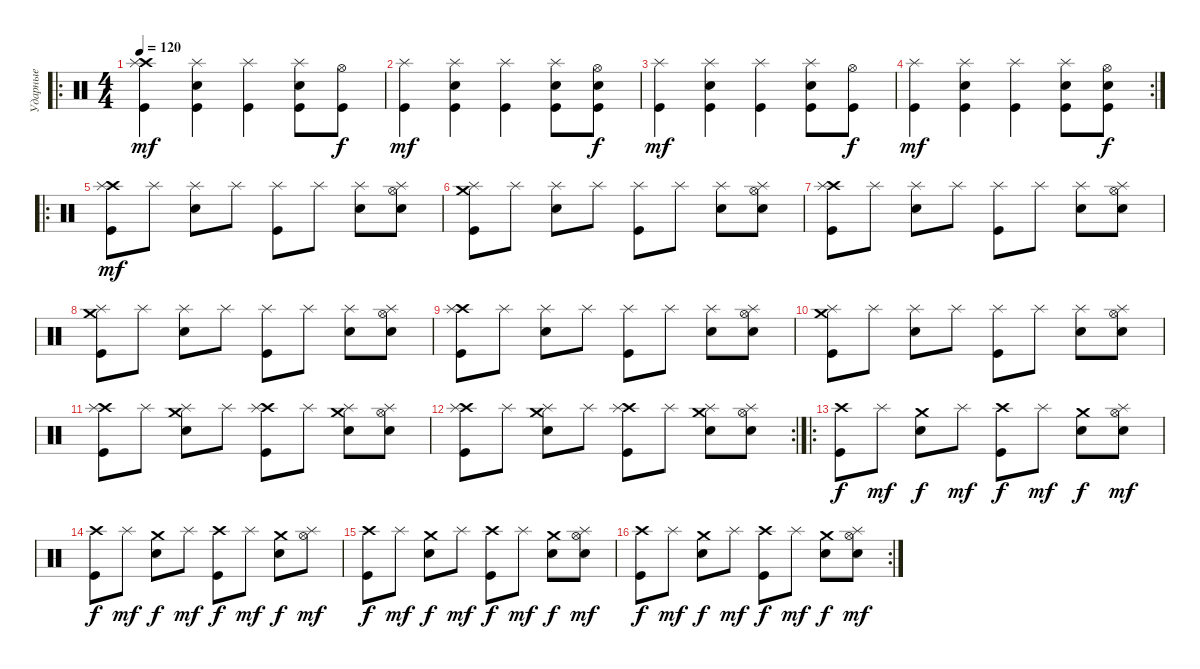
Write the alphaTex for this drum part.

\track ("Ударные" "Ударные") {instrument percussion}
\staff
\articulation defaults
\ro
\ts (4 4)
\tempo 120
\clef neutral
\ks c
("Crash high (hit)" "Splash (hit)" "Kick (hit)").4{dy mf} ("Splash (hit)" "Snare (hit) 2" "Kick (hit)").4 ("Splash (hit)" "Kick (hit)").4 ("Splash (hit)" "Snare (hit) 2" "Kick (hit)").8 ("Hi-Hat (open)" "Kick (hit)").8{dy f} |
("Splash (hit)" "Kick (hit)").4{dy mf} ("Splash (hit)" "Snare (hit) 2" "Kick (hit)").4 ("Splash (hit)" "Kick (hit)").4 ("Splash (hit)" "Snare (hit) 2" "Kick (hit)").8 ("Hi-Hat (open)" "Snare (hit) 2" "Kick (hit)").8{dy f} |
("Splash (hit)" "Kick (hit)").4{dy mf} ("Splash (hit)" "Snare (hit) 2" "Kick (hit)").4 ("Splash (hit)" "Kick (hit)").4 ("Splash (hit)" "Snare (hit) 2" "Kick (hit)").8 ("Hi-Hat (open)" "Kick (hit)").8{dy f} |
\rc 2
("Splash (hit)" "Kick (hit)").4{dy mf} ("Splash (hit)" "Snare (hit) 2" "Kick (hit)").4 ("Splash (hit)" "Kick (hit)").4 ("Splash (hit)" "Snare (hit) 2" "Kick (hit)").8 ("Hi-Hat (open)" "Snare (hit) 2" "Kick (hit)").8{dy f} |
\ro
("Crash high (hit)" "Splash (hit)" "Kick (hit)").8{dy mf} "Splash (hit)".8 ("Splash (hit)" "Snare (hit) 2").8 "Splash (hit)".8 ("Splash (hit)" "Kick (hit)").8 "Splash (hit)".8 ("Splash (hit)" "Snare (hit) 2").8 ("Splash (hit)" "Hi-Hat (open)" "Snare (hit) 2").8 |
("Crash medium (hit)" "Splash (hit)" "Kick (hit)").8 "Splash (hit)".8 ("Splash (hit)" "Snare (hit) 2").8 "Splash (hit)".8 ("Splash (hit)" "Kick (hit)").8 "Splash (hit)".8 ("Splash (hit)" "Snare (hit) 2").8 ("Splash (hit)" "Hi-Hat (open)" "Snare (hit) 2").8 |
("Crash high (hit)" "Splash (hit)" "Kick (hit)").8 "Splash (hit)".8 ("Splash (hit)" "Snare (hit) 2").8 "Splash (hit)".8 ("Splash (hit)" "Kick (hit)").8 "Splash (hit)".8 ("Splash (hit)" "Snare (hit) 2").8 ("Splash (hit)" "Hi-Hat (open)" "Snare (hit) 2").8 |
("Crash medium (hit)" "Splash (hit)" "Kick (hit)").8 "Splash (hit)".8 ("Splash (hit)" "Snare (hit) 2").8 "Splash (hit)".8 ("Splash (hit)" "Kick (hit)").8 "Splash (hit)".8 ("Splash (hit)" "Snare (hit) 2").8 ("Splash (hit)" "Hi-Hat (open)" "Snare (hit) 2").8 |
("Crash high (hit)" "Splash (hit)" "Kick (hit)").8 "Splash (hit)".8 ("Splash (hit)" "Snare (hit) 2").8 "Splash (hit)".8 ("Splash (hit)" "Kick (hit)").8 "Splash (hit)".8 ("Splash (hit)" "Snare (hit) 2").8 ("Splash (hit)" "Hi-Hat (open)" "Snare (hit) 2").8 |
("Crash medium (hit)" "Splash (hit)" "Kick (hit)").8 "Splash (hit)".8 ("Splash (hit)" "Snare (hit) 2").8 "Splash (hit)".8 ("Splash (hit)" "Kick (hit)").8 "Splash (hit)".8 ("Splash (hit)" "Snare (hit) 2").8 ("Splash (hit)" "Hi-Hat (open)" "Snare (hit) 2").8 |
("Crash high (hit)" "Splash (hit)" "Kick (hit)").8 "Splash (hit)".8 ("Crash medium (hit)" "Splash (hit)" "Snare (hit) 2").8 "Splash (hit)".8 ("Crash high (hit)" "Splash (hit)" "Kick (hit)").8 "Splash (hit)".8 ("Crash medium (hit)" "Splash (hit)" "Snare (hit) 2").8 ("Splash (hit)" "Hi-Hat (open)" "Snare (hit) 2").8 |
\rc 2
("Crash high (hit)" "Splash (hit)" "Kick (hit)").8 "Splash (hit)".8 ("Crash medium (hit)" "Splash (hit)" "Snare (hit) 2").8 "Splash (hit)".8 ("Crash high (hit)" "Splash (hit)" "Kick (hit)").8 "Splash (hit)".8 ("Crash medium (hit)" "Splash (hit)" "Snare (hit) 2").8 ("Splash (hit)" "Hi-Hat (open)" "Snare (hit) 2").8 |
\ro
("Crash high (hit)" "Kick (hit)").8{dy f} "Splash (hit)".8{dy mf} ("Crash medium (hit)" "Snare (hit) 2").8{dy f} "Splash (hit)".8{dy mf} ("Crash high (hit)" "Kick (hit)").8{dy f} "Splash (hit)".8{dy mf} ("Crash medium (hit)" "Snare (hit) 2").8{dy f} ("Splash (hit)" "Hi-Hat (open)" "Snare (hit) 2").8{dy mf} |
("Crash high (hit)" "Kick (hit)").8{dy f} "Splash (hit)".8{dy mf} ("Crash medium (hit)" "Snare (hit) 2").8{dy f} "Splash (hit)".8{dy mf} ("Crash high (hit)" "Kick (hit)").8{dy f} "Splash (hit)".8{dy mf} ("Crash medium (hit)" "Snare (hit) 2").8{dy f} ("Splash (hit)" "Hi-Hat (open)").8{dy mf} |
("Crash high (hit)" "Kick (hit)").8{dy f} "Splash (hit)".8{dy mf} ("Crash medium (hit)" "Snare (hit) 2").8{dy f} "Splash (hit)".8{dy mf} ("Crash high (hit)" "Kick (hit)").8{dy f} "Splash (hit)".8{dy mf} ("Crash medium (hit)" "Snare (hit) 2").8{dy f} ("Splash (hit)" "Hi-Hat (open)" "Snare (hit) 2").8{dy mf} |
\rc 2
("Crash high (hit)" "Kick (hit)").8{dy f} "Splash (hit)".8{dy mf} ("Crash medium (hit)" "Snare (hit) 2").8{dy f} "Splash (hit)".8{dy mf} ("Crash high (hit)" "Kick (hit)").8{dy f} "Splash (hit)".8{dy mf} ("Crash medium (hit)" "Snare (hit) 2").8{dy f} ("Splash (hit)" "Hi-Hat (open)" "Snare (hit) 2").8{dy mf}
